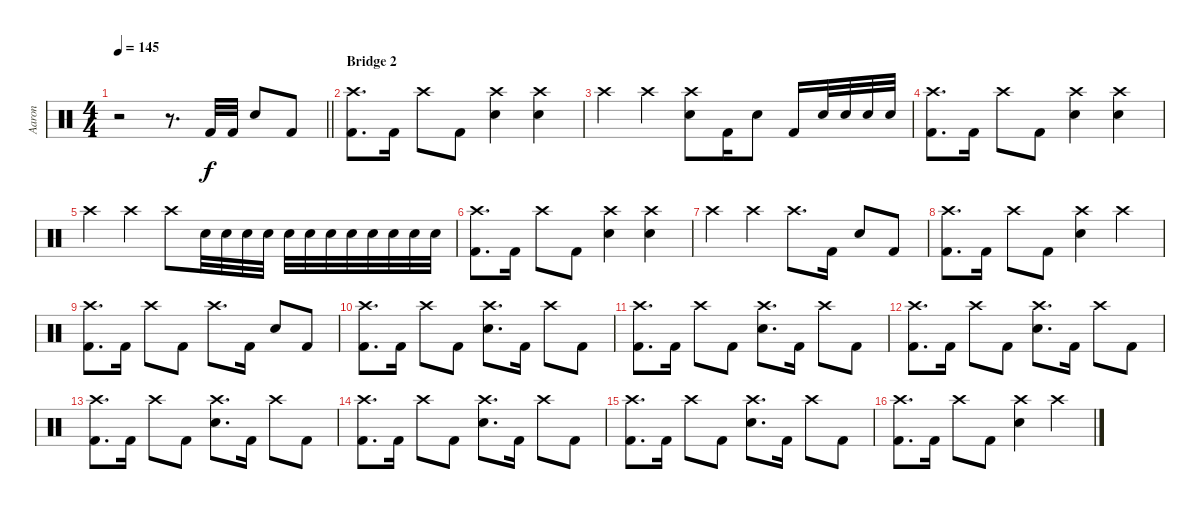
\track ("Aaron" "Aaron") {instrument percussion}
\staff {score}
\articulation defaults
\ts (4 4)
\tempo 145
\clef neutral
\barLineRight lightlight
\ks c
r.2{dy mp} r.8{d} "Kick (hit) 2".32{dy f} "Kick (hit) 2".32 "Snare (hit) 2".8 "Kick (hit) 2".8 |
\section ("" "Bridge 2")
("Crash high (hit)" "Kick (hit) 2").8{d} "Kick (hit) 2".16 "Crash high (hit)".8 "Kick (hit) 2".8 ("Crash high (hit)" "Snare (hit) 2").4 ("Crash high (hit)" "Snare (hit) 2").4 |
"Crash high (hit)".4 "Crash high (hit)".4 ("Crash high (hit)" "Snare (hit) 2").8 "Kick (hit) 2".16 "Snare (hit) 2".8 "Kick (hit) 2".16 "Snare (hit) 2".32 "Snare (hit) 2".32 "Snare (hit) 2".32 "Snare (hit) 2".32 |
("Crash high (hit)" "Kick (hit) 2").8{d} "Kick (hit) 2".16 "Crash high (hit)".8 "Kick (hit) 2".8 ("Crash high (hit)" "Snare (hit) 2").4 ("Crash high (hit)" "Snare (hit) 2").4 |
"Crash high (hit)".4 "Crash high (hit)".4 "Crash high (hit)".8 "Snare (hit) 2".32 "Snare (hit) 2".32 "Snare (hit) 2".32 "Snare (hit) 2".32 "Snare (hit) 2".32 "Snare (hit) 2".32 "Snare (hit) 2".32 "Snare (hit) 2".32 "Snare (hit) 2".32 "Snare (hit) 2".32 "Snare (hit) 2".32 "Snare (hit) 2".32 |
("Crash high (hit)" "Kick (hit) 2").8{d} "Kick (hit) 2".16 "Crash high (hit)".8 "Kick (hit) 2".8 ("Crash high (hit)" "Snare (hit) 2").4 ("Crash high (hit)" "Snare (hit) 2").4 |
"Crash high (hit)".4 "Crash high (hit)".4 "Crash high (hit)".8{d} "Kick (hit) 2".16 "Snare (hit) 2".8 "Kick (hit) 2".8 |
("Crash high (hit)" "Kick (hit) 2").8{d} "Kick (hit) 2".16 "Crash high (hit)".8 "Kick (hit) 2".8 ("Crash high (hit)" "Snare (hit) 2").4 "Crash high (hit)".4 |
("Crash high (hit)" "Kick (hit) 2").8{d} "Kick (hit) 2".16 "Crash high (hit)".8 "Kick (hit) 2".8 "Crash high (hit)".8{d} "Kick (hit) 2".16 "Snare (hit) 2".8 "Kick (hit) 2".8 |
("Crash high (hit)" "Kick (hit) 2").8{d} "Kick (hit) 2".16 "Crash high (hit)".8 "Kick (hit) 2".8 ("Crash high (hit)" "Snare (hit) 2").8{d} "Kick (hit) 2".16 "Crash high (hit)".8 "Kick (hit) 2".8 |
("Crash high (hit)" "Kick (hit) 2").8{d} "Kick (hit) 2".16 "Crash high (hit)".8 "Kick (hit) 2".8 ("Crash high (hit)" "Snare (hit) 2").8{d} "Kick (hit) 2".16 "Crash high (hit)".8 "Kick (hit) 2".8 |
("Crash high (hit)" "Kick (hit) 2").8{d} "Kick (hit) 2".16 "Crash high (hit)".8 "Kick (hit) 2".8 ("Crash high (hit)" "Snare (hit) 2").8{d} "Kick (hit) 2".16 "Crash high (hit)".8 "Kick (hit) 2".8 |
("Crash high (hit)" "Kick (hit) 2").8{d} "Kick (hit) 2".16 "Crash high (hit)".8 "Kick (hit) 2".8 ("Crash high (hit)" "Snare (hit) 2").8{d} "Kick (hit) 2".16 "Crash high (hit)".8 "Kick (hit) 2".8 |
("Crash high (hit)" "Kick (hit) 2").8{d} "Kick (hit) 2".16 "Crash high (hit)".8 "Kick (hit) 2".8 ("Crash high (hit)" "Snare (hit) 2").8{d} "Kick (hit) 2".16 "Crash high (hit)".8 "Kick (hit) 2".8 |
("Crash high (hit)" "Kick (hit) 2").8{d} "Kick (hit) 2".16 "Crash high (hit)".8 "Kick (hit) 2".8 ("Crash high (hit)" "Snare (hit) 2").8{d} "Kick (hit) 2".16 "Crash high (hit)".8 "Kick (hit) 2".8 |
("Crash high (hit)" "Kick (hit) 2").8{d} "Kick (hit) 2".16 "Crash high (hit)".8 "Kick (hit) 2".8 ("Crash high (hit)" "Snare (hit) 2").4 "Crash high (hit)".4
